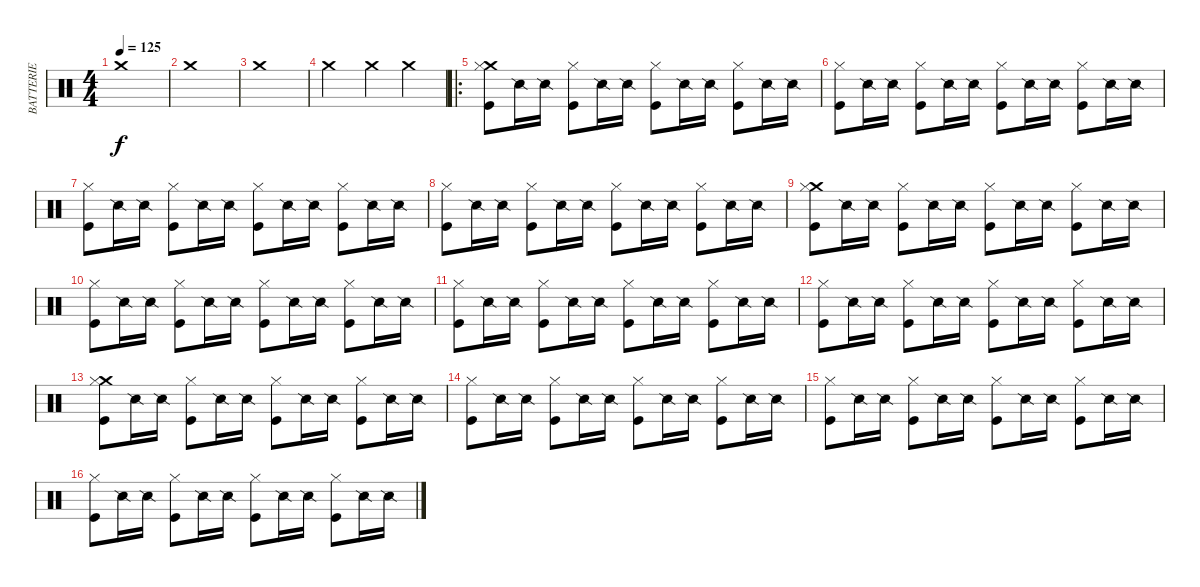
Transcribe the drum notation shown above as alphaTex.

\track ("BATTERIE" "BATTERIE") {instrument percussion}
\staff {score}
\articulation defaults
\ts (4 4)
\tempo 125
\clef neutral
\ks c "Crash medium (hit)".1{dy f}
|
"Crash medium (hit)".1 |
"Crash medium (hit)".1 |
"Crash medium (hit)".2 "Crash medium (hit)".4 "Crash medium (hit)".4 |
\ro
("Crash medium (hit)" "Hi-Hat (closed)" "Kick (hit)").8 "Snare (side stick) 2".16 "Snare (side stick) 2".16 ("Hi-Hat (closed)" "Kick (hit)").8 "Snare (side stick) 2".16 "Snare (side stick) 2".16 ("Hi-Hat (closed)" "Kick (hit)").8 "Snare (side stick) 2".16 "Snare (side stick) 2".16 ("Hi-Hat (closed)" "Kick (hit)").8 "Snare (side stick) 2".16 "Snare (side stick) 2".16 |
("Hi-Hat (closed)" "Kick (hit)").8 "Snare (side stick) 2".16 "Snare (side stick) 2".16 ("Hi-Hat (closed)" "Kick (hit)").8 "Snare (side stick) 2".16 "Snare (side stick) 2".16 ("Hi-Hat (closed)" "Kick (hit)").8 "Snare (side stick) 2".16 "Snare (side stick) 2".16 ("Hi-Hat (closed)" "Kick (hit)").8 "Snare (side stick) 2".16 "Snare (side stick) 2".16 |
("Hi-Hat (closed)" "Kick (hit)").8 "Snare (side stick) 2".16 "Snare (side stick) 2".16 ("Hi-Hat (closed)" "Kick (hit)").8 "Snare (side stick) 2".16 "Snare (side stick) 2".16 ("Hi-Hat (closed)" "Kick (hit)").8 "Snare (side stick) 2".16 "Snare (side stick) 2".16 ("Hi-Hat (closed)" "Kick (hit)").8 "Snare (side stick) 2".16 "Snare (side stick) 2".16 |
("Hi-Hat (closed)" "Kick (hit)").8 "Snare (side stick) 2".16 "Snare (side stick) 2".16 ("Hi-Hat (closed)" "Kick (hit)").8 "Snare (side stick) 2".16 "Snare (side stick) 2".16 ("Hi-Hat (closed)" "Kick (hit)").8 "Snare (side stick) 2".16 "Snare (side stick) 2".16 ("Hi-Hat (closed)" "Kick (hit)").8 "Snare (side stick) 2".16 "Snare (side stick) 2".16 |
("Crash medium (hit)" "Hi-Hat (closed)" "Kick (hit)").8 "Snare (side stick) 2".16 "Snare (side stick) 2".16 ("Hi-Hat (closed)" "Kick (hit)").8 "Snare (side stick) 2".16 "Snare (side stick) 2".16 ("Hi-Hat (closed)" "Kick (hit)").8 "Snare (side stick) 2".16 "Snare (side stick) 2".16 ("Hi-Hat (closed)" "Kick (hit)").8 "Snare (side stick) 2".16 "Snare (side stick) 2".16 |
("Hi-Hat (closed)" "Kick (hit)").8 "Snare (side stick) 2".16 "Snare (side stick) 2".16 ("Hi-Hat (closed)" "Kick (hit)").8 "Snare (side stick) 2".16 "Snare (side stick) 2".16 ("Hi-Hat (closed)" "Kick (hit)").8 "Snare (side stick) 2".16 "Snare (side stick) 2".16 ("Hi-Hat (closed)" "Kick (hit)").8 "Snare (side stick) 2".16 "Snare (side stick) 2".16 |
("Hi-Hat (closed)" "Kick (hit)").8 "Snare (side stick) 2".16 "Snare (side stick) 2".16 ("Hi-Hat (closed)" "Kick (hit)").8 "Snare (side stick) 2".16 "Snare (side stick) 2".16 ("Hi-Hat (closed)" "Kick (hit)").8 "Snare (side stick) 2".16 "Snare (side stick) 2".16 ("Hi-Hat (closed)" "Kick (hit)").8 "Snare (side stick) 2".16 "Snare (side stick) 2".16 |
("Hi-Hat (closed)" "Kick (hit)").8 "Snare (side stick) 2".16 "Snare (side stick) 2".16 ("Hi-Hat (closed)" "Kick (hit)").8 "Snare (side stick) 2".16 "Snare (side stick) 2".16 ("Hi-Hat (closed)" "Kick (hit)").8 "Snare (side stick) 2".16 "Snare (side stick) 2".16 ("Hi-Hat (closed)" "Kick (hit)").8 "Snare (side stick) 2".16 "Snare (side stick) 2".16 |
("Crash medium (hit)" "Hi-Hat (closed)" "Kick (hit)").8 "Snare (side stick) 2".16 "Snare (side stick) 2".16 ("Hi-Hat (closed)" "Kick (hit)").8 "Snare (side stick) 2".16 "Snare (side stick) 2".16 ("Hi-Hat (closed)" "Kick (hit)").8 "Snare (side stick) 2".16 "Snare (side stick) 2".16 ("Hi-Hat (closed)" "Kick (hit)").8 "Snare (side stick) 2".16 "Snare (side stick) 2".16 |
("Hi-Hat (closed)" "Kick (hit)").8 "Snare (side stick) 2".16 "Snare (side stick) 2".16 ("Hi-Hat (closed)" "Kick (hit)").8 "Snare (side stick) 2".16 "Snare (side stick) 2".16 ("Hi-Hat (closed)" "Kick (hit)").8 "Snare (side stick) 2".16 "Snare (side stick) 2".16 ("Hi-Hat (closed)" "Kick (hit)").8 "Snare (side stick) 2".16 "Snare (side stick) 2".16 |
("Hi-Hat (closed)" "Kick (hit)").8 "Snare (side stick) 2".16 "Snare (side stick) 2".16 ("Hi-Hat (closed)" "Kick (hit)").8 "Snare (side stick) 2".16 "Snare (side stick) 2".16 ("Hi-Hat (closed)" "Kick (hit)").8 "Snare (side stick) 2".16 "Snare (side stick) 2".16 ("Hi-Hat (closed)" "Kick (hit)").8 "Snare (side stick) 2".16 "Snare (side stick) 2".16 |
("Hi-Hat (closed)" "Kick (hit)").8 "Snare (side stick) 2".16 "Snare (side stick) 2".16 ("Hi-Hat (closed)" "Kick (hit)").8 "Snare (side stick) 2".16 "Snare (side stick) 2".16 ("Hi-Hat (closed)" "Kick (hit)").8 "Snare (side stick) 2".16 "Snare (side stick) 2".16 ("Hi-Hat (closed)" "Kick (hit)").8 "Snare (side stick) 2".16 "Snare (side stick) 2".16
